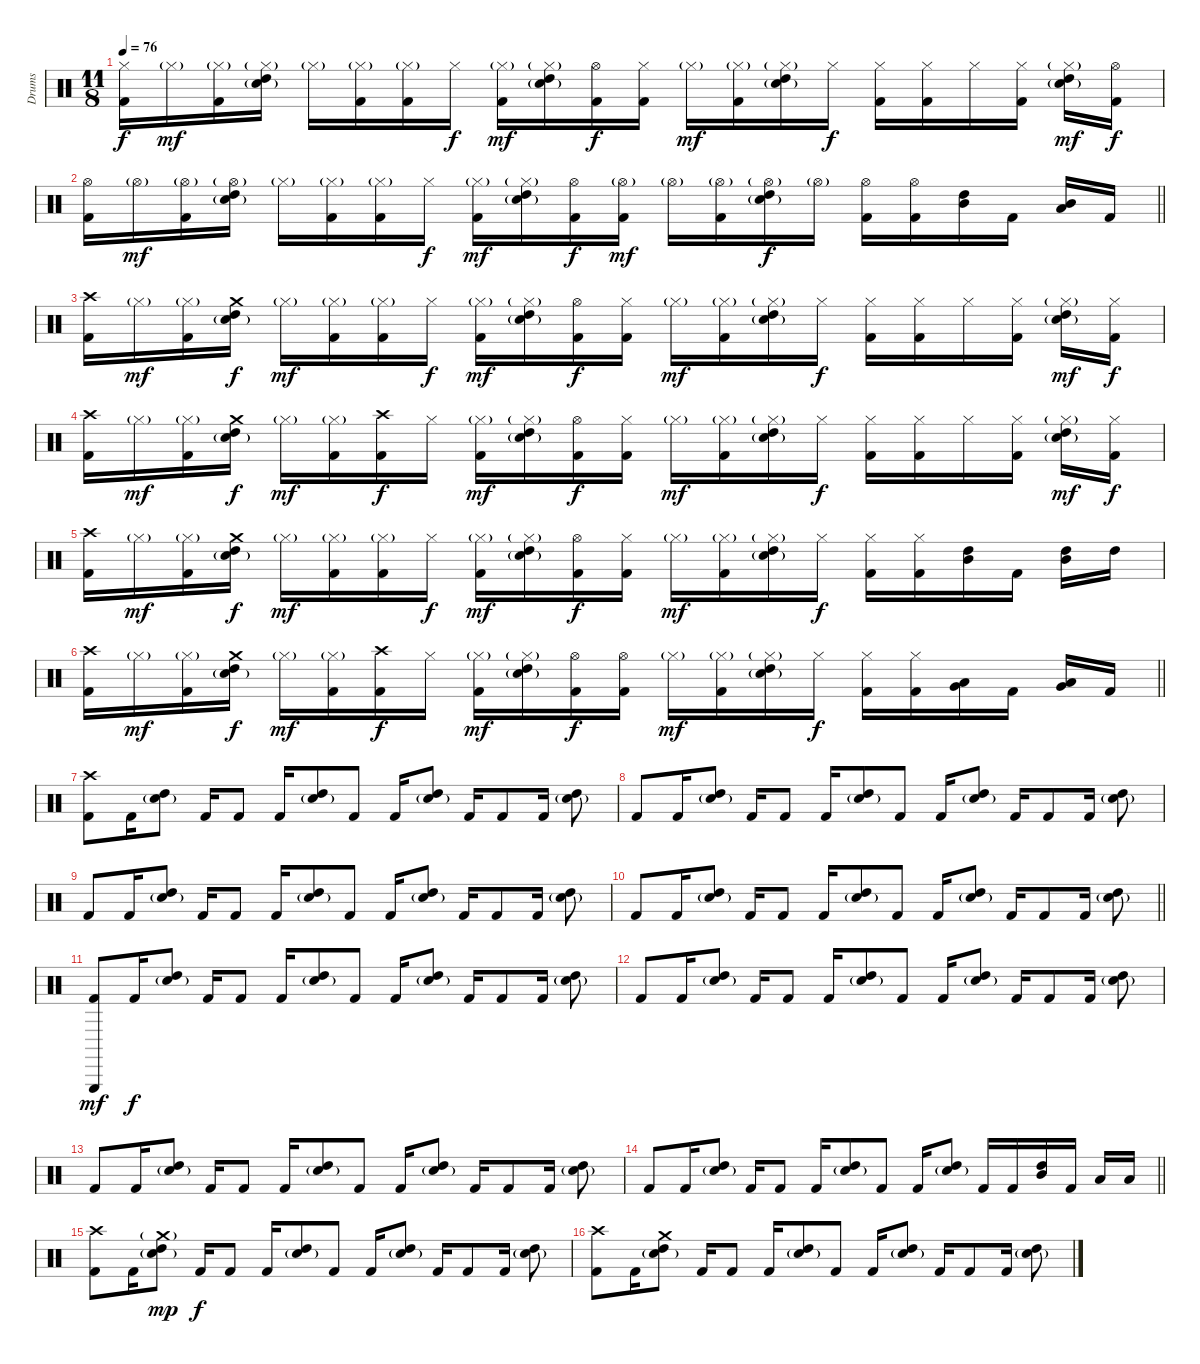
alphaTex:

\track ("Drums" "Drums") {instrument percussion}
\staff {score}
\articulation defaults
\ts (11 8)
\tempo 76
\clef neutral
\ks c
("Hi-Hat (closed)" "Kick (hit) 2").16{dy f} "Hi-Hat (closed)"{g}.16{dy mf} ("Hi-Hat (closed)"{g} "Kick (hit) 2").16 ("Hi-Hat (closed)"{g} "High Tom (hit)" "Snare (hit) 2"{g}).16 "Hi-Hat (closed)"{g}.16 ("Hi-Hat (closed)"{g} "Kick (hit) 2").16 ("Hi-Hat (closed)"{g} "Kick (hit) 2").16 "Hi-Hat (closed)".16{dy f} ("Hi-Hat (closed)"{g} "Kick (hit) 2").16{dy mf} ("Hi-Hat (closed)"{g} "High Tom (hit)" "Snare (hit) 2"{g}).16 ("Hi-Hat (open)" "Kick (hit) 2").16{dy f} ("Hi-Hat (closed)" "Kick (hit) 2").16 "Hi-Hat (closed)"{g}.16{dy mf} ("Hi-Hat (closed)"{g} "Kick (hit) 2").16 ("Hi-Hat (closed)"{g} "High Tom (hit)" "Snare (hit) 2"{g}).16 "Hi-Hat (closed)".16{dy f} ("Hi-Hat (closed)" "Kick (hit) 2").16 ("Hi-Hat (closed)" "Kick (hit) 2").16 "Hi-Hat (closed)".16 ("Hi-Hat (closed)" "Kick (hit) 2").16 ("Hi-Hat (closed)"{g} "High Tom (hit)" "Snare (hit) 2"{g}).16{dy mf} ("Hi-Hat (open)" "Kick (hit) 2").16{dy f} |
\barLineRight lightlight
("Hi-Hat (open)" "Kick (hit) 2").16 "Hi-Hat (open)"{g}.16{dy mf} ("Hi-Hat (open)"{g} "Kick (hit) 2").16 ("Hi-Hat (open)"{g} "High Tom (hit)" "Snare (hit) 2"{g}).16 "Hi-Hat (closed)"{g}.16 ("Hi-Hat (closed)"{g} "Kick (hit) 2").16 ("Hi-Hat (closed)"{g} "Kick (hit) 2").16 "Hi-Hat (closed)".16{dy f} ("Hi-Hat (closed)"{g} "Kick (hit) 2").16{dy mf} ("Hi-Hat (closed)"{g} "High Tom (hit)" "Snare (hit) 2"{g}).16 ("Hi-Hat (open)" "Kick (hit) 2").16{dy f} ("Hi-Hat (open)"{g} "Kick (hit) 2").16{dy mf} "Hi-Hat (open)"{g}.16 ("Hi-Hat (open)"{g} "Kick (hit) 2").16 ("Hi-Hat (open)"{g} "High Tom (hit)" "Snare (hit) 2"{g}).16{dy f} "Hi-Hat (open)"{g}.16 ("Hi-Hat (open)" "Kick (hit) 2").16 ("Hi-Hat (open)" "Kick (hit) 2").16 ("High Tom (hit)" "Mid Tom (hit)").16 "Kick (hit) 2".16 ("Mid Tom (hit)" "Low Tom (hit)").16 "Kick (hit) 2".16 |
\section ("" "")
("Crash high (hit)" "Kick (hit) 2").16 "Hi-Hat (closed)"{g}.16{dy mf} ("Hi-Hat (closed)"{g} "Kick (hit) 2").16 ("Crash medium (hit)" "High Tom (hit)" "Snare (hit) 2"{g}).16{dy f} "Hi-Hat (closed)"{g}.16{dy mf} ("Hi-Hat (closed)"{g} "Kick (hit) 2").16 ("Hi-Hat (closed)"{g} "Kick (hit) 2").16 "Hi-Hat (closed)".16{dy f} ("Hi-Hat (closed)"{g} "Kick (hit) 2").16{dy mf} ("Hi-Hat (closed)"{g} "High Tom (hit)" "Snare (hit) 2"{g}).16 ("Hi-Hat (open)" "Kick (hit) 2").16{dy f} ("Hi-Hat (closed)" "Kick (hit) 2").16 "Hi-Hat (closed)"{g}.16{dy mf} ("Hi-Hat (closed)"{g} "Kick (hit) 2").16 ("Hi-Hat (closed)"{g} "High Tom (hit)" "Snare (hit) 2"{g}).16 "Hi-Hat (closed)".16{dy f} ("Hi-Hat (closed)" "Kick (hit) 2").16 ("Hi-Hat (closed)" "Kick (hit) 2").16 "Hi-Hat (closed)".16 ("Hi-Hat (closed)" "Kick (hit) 2").16 ("Hi-Hat (closed)"{g} "High Tom (hit)" "Snare (hit) 2"{g}).16{dy mf} ("Hi-Hat (closed)" "Kick (hit) 2").16{dy f} |
("Crash high (hit)" "Kick (hit) 2").16 "Hi-Hat (closed)"{g}.16{dy mf} ("Hi-Hat (closed)"{g} "Kick (hit) 2").16 ("Crash medium (hit)" "High Tom (hit)" "Snare (hit) 2"{g}).16{dy f} "Hi-Hat (closed)"{g}.16{dy mf} ("Hi-Hat (closed)"{g} "Kick (hit) 2").16 ("Crash high (hit)" "Kick (hit) 2").16{dy f} "Hi-Hat (closed)".16 ("Hi-Hat (closed)"{g} "Kick (hit) 2").16{dy mf} ("Hi-Hat (closed)"{g} "High Tom (hit)" "Snare (hit) 2"{g}).16 ("Hi-Hat (open)" "Kick (hit) 2").16{dy f} ("Hi-Hat (closed)" "Kick (hit) 2").16 "Hi-Hat (closed)"{g}.16{dy mf} ("Hi-Hat (closed)"{g} "Kick (hit) 2").16 ("Hi-Hat (closed)"{g} "High Tom (hit)" "Snare (hit) 2"{g}).16 "Hi-Hat (closed)".16{dy f} ("Hi-Hat (closed)" "Kick (hit) 2").16 ("Hi-Hat (closed)" "Kick (hit) 2").16 "Hi-Hat (closed)".16 ("Hi-Hat (closed)" "Kick (hit) 2").16 ("Hi-Hat (closed)"{g} "High Tom (hit)" "Snare (hit) 2"{g}).16{dy mf} ("Hi-Hat (closed)" "Kick (hit) 2").16{dy f} |
("Crash high (hit)" "Kick (hit) 2").16 "Hi-Hat (closed)"{g}.16{dy mf} ("Hi-Hat (closed)"{g} "Kick (hit) 2").16 ("Crash medium (hit)" "High Tom (hit)" "Snare (hit) 2"{g}).16{dy f} "Hi-Hat (closed)"{g}.16{dy mf} ("Hi-Hat (closed)"{g} "Kick (hit) 2").16 ("Hi-Hat (closed)"{g} "Kick (hit) 2").16 "Hi-Hat (closed)".16{dy f} ("Hi-Hat (closed)"{g} "Kick (hit) 2").16{dy mf} ("Hi-Hat (closed)"{g} "High Tom (hit)" "Snare (hit) 2"{g}).16 ("Hi-Hat (open)" "Kick (hit) 2").16{dy f} ("Hi-Hat (closed)" "Kick (hit) 2").16 "Hi-Hat (closed)"{g}.16{dy mf} ("Hi-Hat (closed)"{g} "Kick (hit) 2").16 ("Hi-Hat (closed)"{g} "High Tom (hit)" "Snare (hit) 2"{g}).16 "Hi-Hat (closed)".16{dy f} ("Hi-Hat (closed)" "Kick (hit) 2").16 ("Hi-Hat (closed)" "Kick (hit) 2").16 ("High Tom (hit)" "Mid Tom (hit)").16 "Kick (hit) 2".16 ("High Tom (hit)" "Mid Tom (hit)").16 "High Tom (hit)".16 |
\barLineRight lightlight
("Crash high (hit)" "Kick (hit) 2").16 "Hi-Hat (closed)"{g}.16{dy mf} ("Hi-Hat (closed)"{g} "Kick (hit) 2").16 ("Crash medium (hit)" "High Tom (hit)" "Snare (hit) 2"{g}).16{dy f} "Hi-Hat (closed)"{g}.16{dy mf} ("Hi-Hat (closed)"{g} "Kick (hit) 2").16 ("Crash high (hit)" "Kick (hit) 2").16{dy f} "Hi-Hat (closed)".16 ("Hi-Hat (closed)"{g} "Kick (hit) 2").16{dy mf} ("Hi-Hat (closed)"{g} "High Tom (hit)" "Snare (hit) 2"{g}).16 ("Hi-Hat (open)" "Kick (hit) 2").16{dy f} ("Hi-Hat (open)" "Kick (hit) 2").16 "Hi-Hat (closed)"{g}.16{dy mf} ("Hi-Hat (closed)"{g} "Kick (hit) 2").16 ("Hi-Hat (closed)"{g} "High Tom (hit)" "Snare (hit) 2"{g}).16 "Hi-Hat (closed)".16{dy f} ("Hi-Hat (closed)" "Kick (hit) 2").16 ("Hi-Hat (closed)" "Kick (hit) 2").16 ("Low Tom (hit)" "Very Low Tom (hit)").16 "Kick (hit) 2".16 ("Very Low Tom (hit)" "Low Floor Tom (hit)").16 "Kick (hit) 2".16 |
\section ("" "")
("Crash high (hit)" "Kick (hit) 2").8 "Kick (hit) 2".16 ("High Tom (hit)" "Snare (hit) 2"{g}).8 "Kick (hit) 2".16 "Kick (hit) 2".8 "Kick (hit) 2".16 ("High Tom (hit)" "Snare (hit) 2"{g}).8 "Kick (hit) 2".8 "Kick (hit) 2".16 ("High Tom (hit)" "Snare (hit) 2"{g}).8 "Kick (hit) 2".16 "Kick (hit) 2".8 "Kick (hit) 2".16 ("High Tom (hit)" "Snare (hit) 2"{g}).8 |
"Kick (hit) 2".8 "Kick (hit) 2".16 ("High Tom (hit)" "Snare (hit) 2"{g}).8 "Kick (hit) 2".16 "Kick (hit) 2".8 "Kick (hit) 2".16 ("High Tom (hit)" "Snare (hit) 2"{g}).8 "Kick (hit) 2".8 "Kick (hit) 2".16 ("High Tom (hit)" "Snare (hit) 2"{g}).8 "Kick (hit) 2".16 "Kick (hit) 2".8 "Kick (hit) 2".16 ("High Tom (hit)" "Snare (hit) 2"{g}).8 |
"Kick (hit) 2".8 "Kick (hit) 2".16 ("High Tom (hit)" "Snare (hit) 2"{g}).8 "Kick (hit) 2".16 "Kick (hit) 2".8 "Kick (hit) 2".16 ("High Tom (hit)" "Snare (hit) 2"{g}).8 "Kick (hit) 2".8 "Kick (hit) 2".16 ("High Tom (hit)" "Snare (hit) 2"{g}).8 "Kick (hit) 2".16 "Kick (hit) 2".8 "Kick (hit) 2".16 ("High Tom (hit)" "Snare (hit) 2"{g}).8 |
\barLineRight lightlight "Kick (hit) 2".8 "Kick (hit) 2".16
("High Tom (hit)" "Snare (hit) 2"{g}).8 "Kick (hit) 2".16 "Kick (hit) 2".8 "Kick (hit) 2".16 ("High Tom (hit)" "Snare (hit) 2"{g}).8 "Kick (hit) 2".8 "Kick (hit) 2".16 ("High Tom (hit)" "Snare (hit) 2"{g}).8 "Kick (hit) 2".16 "Kick (hit) 2".8 "Kick (hit) 2".16 ("High Tom (hit)" "Snare (hit) 2"{g}).8 |
\section ("" "")
("Triangle (hit)" "Kick (hit) 2").8{dy mf} "Kick (hit) 2".16{dy f} ("High Tom (hit)" "Snare (hit) 2"{g}).8 "Kick (hit) 2".16 "Kick (hit) 2".8 "Kick (hit) 2".16 ("High Tom (hit)" "Snare (hit) 2"{g}).8 "Kick (hit) 2".8 "Kick (hit) 2".16 ("High Tom (hit)" "Snare (hit) 2"{g}).8 "Kick (hit) 2".16 "Kick (hit) 2".8 "Kick (hit) 2".16 ("High Tom (hit)" "Snare (hit) 2"{g}).8 |
"Kick (hit) 2".8 "Kick (hit) 2".16 ("High Tom (hit)" "Snare (hit) 2"{g}).8 "Kick (hit) 2".16 "Kick (hit) 2".8 "Kick (hit) 2".16 ("High Tom (hit)" "Snare (hit) 2"{g}).8 "Kick (hit) 2".8 "Kick (hit) 2".16 ("High Tom (hit)" "Snare (hit) 2"{g}).8 "Kick (hit) 2".16 "Kick (hit) 2".8 "Kick (hit) 2".16 ("High Tom (hit)" "Snare (hit) 2"{g}).8 |
"Kick (hit) 2".8 "Kick (hit) 2".16 ("High Tom (hit)" "Snare (hit) 2"{g}).8 "Kick (hit) 2".16 "Kick (hit) 2".8 "Kick (hit) 2".16 ("High Tom (hit)" "Snare (hit) 2"{g}).8 "Kick (hit) 2".8 "Kick (hit) 2".16 ("High Tom (hit)" "Snare (hit) 2"{g}).8 "Kick (hit) 2".16 "Kick (hit) 2".8 "Kick (hit) 2".16 ("High Tom (hit)" "Snare (hit) 2"{g}).8 |
\barLineRight lightlight "Kick (hit) 2".8 "Kick (hit) 2".16
("High Tom (hit)" "Snare (hit) 2"{g}).8 "Kick (hit) 2".16 "Kick (hit) 2".8 "Kick (hit) 2".16 ("High Tom (hit)" "Snare (hit) 2"{g}).8 "Kick (hit) 2".8 "Kick (hit) 2".16 ("High Tom (hit)" "Snare (hit) 2"{g}).8 "Kick (hit) 2".16 "Kick (hit) 2".16 ("High Tom (hit)" "Mid Tom (hit)").16 "Kick (hit) 2".16 "Low Tom (hit)".16 "Low Tom (hit)".16 |
\section ("" "")
("Crash high (hit)" "Kick (hit) 2").8 "Kick (hit) 2".16 ("Crash medium (hit)"{g} "High Tom (hit)" "Snare (hit) 2"{g}).8{dy mp} "Kick (hit) 2".16{dy f} "Kick (hit) 2".8 "Kick (hit) 2".16 ("High Tom (hit)" "Snare (hit) 2"{g}).8 "Kick (hit) 2".8 "Kick (hit) 2".16 ("High Tom (hit)" "Snare (hit) 2"{g}).8 "Kick (hit) 2".16 "Kick (hit) 2".8 "Kick (hit) 2".16 ("High Tom (hit)" "Snare (hit) 2"{g}).8 |
("Crash high (hit)" "Kick (hit) 2").8 "Kick (hit) 2".16 ("Crash medium (hit)" "High Tom (hit)" "Snare (hit) 2"{g}).8 "Kick (hit) 2".16 "Kick (hit) 2".8 "Kick (hit) 2".16 ("High Tom (hit)" "Snare (hit) 2"{g}).8 "Kick (hit) 2".8 "Kick (hit) 2".16 ("High Tom (hit)" "Snare (hit) 2"{g}).8 "Kick (hit) 2".16 "Kick (hit) 2".8 "Kick (hit) 2".16 ("High Tom (hit)" "Snare (hit) 2"{g}).8
